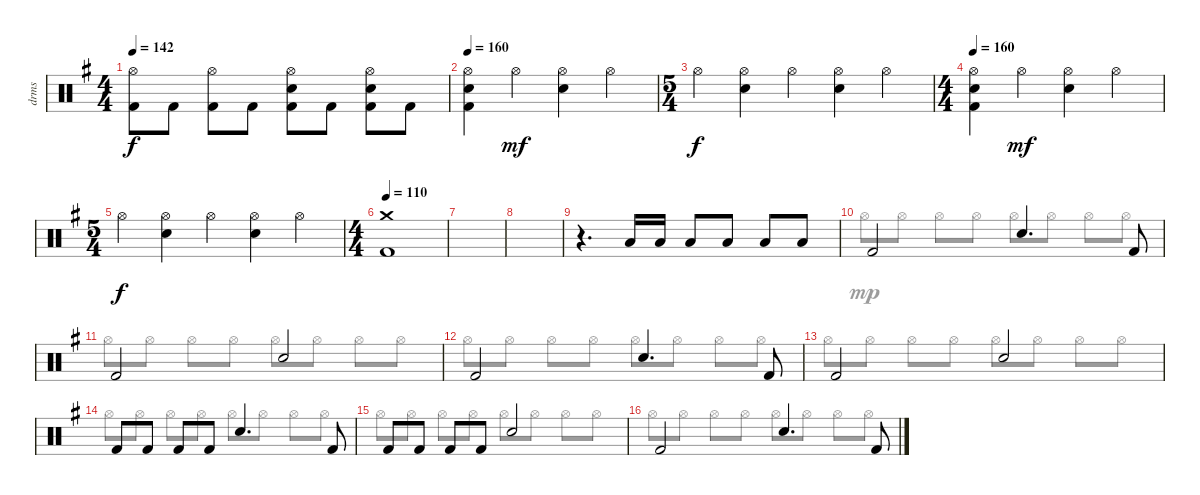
\track ("drms" "drms") {instrument percussion}
\staff {score}
\articulation defaults
\voice
\ts (4 4)
\tempo 142
\clef neutral
\ks g
("Hi-Hat (open)" "Kick (hit) 2").8{dy f} "Kick (hit) 2".8 ("Hi-Hat (open)" "Kick (hit) 2").8 "Kick (hit) 2".8 ("Hi-Hat (open)" "Snare (hit) 2" "Kick (hit) 2").8 "Kick (hit) 2".8 ("Hi-Hat (open)" "Snare (hit) 2" "Kick (hit) 2").8 "Kick (hit) 2".8 |
\tempo 160
("Hi-Hat (open)" "Snare (hit) 2" "Kick (hit) 2").4 "Hi-Hat (open)".4{dy mf} ("Hi-Hat (open)" "Snare (hit) 2").4 "Hi-Hat (open)".4 |
\ts (5 4)
"Hi-Hat (open)".4{dy f} ("Hi-Hat (open)" "Snare (hit) 2").4 "Hi-Hat (open)".4 ("Hi-Hat (open)" "Snare (hit) 2").4 "Hi-Hat (open)".4 |
\ts (4 4)
\tempo 160
("Hi-Hat (open)" "Snare (hit) 2" "Kick (hit) 2").4 "Hi-Hat (open)".4{dy mf} ("Hi-Hat (open)" "Snare (hit) 2").4 "Hi-Hat (open)".4 |
\ts (5 4)
"Hi-Hat (open)".4{dy f} ("Hi-Hat (open)" "Snare (hit) 2").4 "Hi-Hat (open)".4 ("Hi-Hat (open)" "Snare (hit) 2").4 "Hi-Hat (open)".4 |
\ts (4 4)
\tempo 110
("Crash medium (hit)" "Kick (hit) 2").1 |
|
|
r.4{d} "Low Floor Tom (hit)".16 "Low Floor Tom (hit)".16 "Low Floor Tom (hit)".8 "Low Floor Tom (hit)".8 "Low Floor Tom (hit)".8 "Low Floor Tom (hit)".8 |
"Kick (hit) 2".2 "Snare (hit) 2".4{d} "Kick (hit) 2".8 |
"Kick (hit) 2".2 "Snare (hit) 2".2 |
"Kick (hit) 2".2 "Snare (hit) 2".4{d} "Kick (hit) 2".8 |
"Kick (hit) 2".2 "Snare (hit) 2".2 |
"Kick (hit) 2".8 "Kick (hit) 2".8 "Kick (hit) 2".8 "Kick (hit) 2".8 "Snare (hit) 2".4{d} "Kick (hit) 2".8 |
"Kick (hit) 2".8 "Kick (hit) 2".8 "Kick (hit) 2".8 "Kick (hit) 2".8 "Snare (hit) 2".2 |
"Kick (hit) 2".2 "Snare (hit) 2".4{d} "Kick (hit) 2".8
\voice
\clef neutral
\ottava regular
\simile none
\ks g
|
|
|
|
|
|
|
|
|
"Hi-Hat (open)".8{dy mp} "Hi-Hat (open)".8 "Hi-Hat (open)".8 "Hi-Hat (open)".8 "Hi-Hat (open)".8 "Hi-Hat (open)".8 "Hi-Hat (open)".8 "Hi-Hat (open)".8 |
"Hi-Hat (open)".8 "Hi-Hat (open)".8 "Hi-Hat (open)".8 "Hi-Hat (open)".8 "Hi-Hat (open)".8 "Hi-Hat (open)".8 "Hi-Hat (open)".8 "Hi-Hat (open)".8 |
"Hi-Hat (open)".8 "Hi-Hat (open)".8 "Hi-Hat (open)".8 "Hi-Hat (open)".8 "Hi-Hat (open)".8 "Hi-Hat (open)".8 "Hi-Hat (open)".8 "Hi-Hat (open)".8 |
"Hi-Hat (open)".8 "Hi-Hat (open)".8 "Hi-Hat (open)".8 "Hi-Hat (open)".8 "Hi-Hat (open)".8 "Hi-Hat (open)".8 "Hi-Hat (open)".8 "Hi-Hat (open)".8 |
"Hi-Hat (open)".8 "Hi-Hat (open)".8 "Hi-Hat (open)".8 "Hi-Hat (open)".8 "Hi-Hat (open)".8 "Hi-Hat (open)".8 "Hi-Hat (open)".8 "Hi-Hat (open)".8 |
"Hi-Hat (open)".8 "Hi-Hat (open)".8 "Hi-Hat (open)".8 "Hi-Hat (open)".8 "Hi-Hat (open)".8 "Hi-Hat (open)".8 "Hi-Hat (open)".8 "Hi-Hat (open)".8 |
"Hi-Hat (open)".8 "Hi-Hat (open)".8 "Hi-Hat (open)".8 "Hi-Hat (open)".8 "Hi-Hat (open)".8 "Hi-Hat (open)".8 "Hi-Hat (open)".8 "Hi-Hat (open)".8
